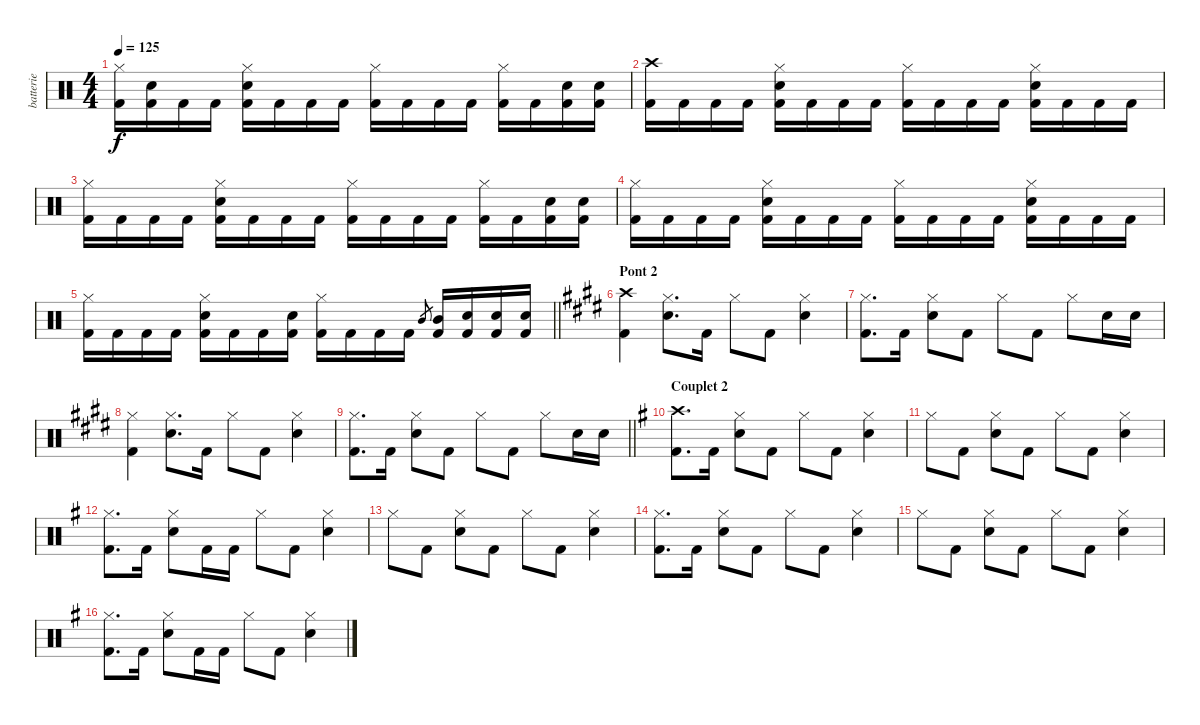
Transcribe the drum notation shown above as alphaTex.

\track ("batterie" "batterie") {instrument percussion}
\staff {score}
\articulation defaults
\ts (4 4)
\tempo 125
\clef neutral
\ks aminor
("Hi-Hat (closed)" "Kick (hit) 2").16{dy f} ("Electric Snare (hit)" "Kick (hit) 2").16 "Kick (hit) 2".16 "Kick (hit) 2".16 ("Hi-Hat (closed)" "Electric Snare (hit)" "Kick (hit) 2").16 "Kick (hit) 2".16 "Kick (hit) 2".16 "Kick (hit) 2".16 ("Hi-Hat (closed)" "Kick (hit) 2").16 "Kick (hit) 2".16 "Kick (hit) 2".16 "Kick (hit) 2".16 ("Hi-Hat (closed)" "Kick (hit) 2").16 "Kick (hit) 2".16 ("Electric Snare (hit)" "Kick (hit) 2").16 ("Electric Snare (hit)" "Kick (hit) 2").16 |
("Crash high (hit)" "Kick (hit) 2").16 "Kick (hit) 2".16 "Kick (hit) 2".16 "Kick (hit) 2".16 ("Hi-Hat (closed)" "Electric Snare (hit)" "Kick (hit) 2").16 "Kick (hit) 2".16 "Kick (hit) 2".16 "Kick (hit) 2".16 ("Hi-Hat (closed)" "Kick (hit) 2").16 "Kick (hit) 2".16 "Kick (hit) 2".16 "Kick (hit) 2".16 ("Hi-Hat (closed)" "Electric Snare (hit)" "Kick (hit) 2").16 "Kick (hit) 2".16 "Kick (hit) 2".16 "Kick (hit) 2".16 |
("Hi-Hat (closed)" "Kick (hit) 2").16 "Kick (hit) 2".16 "Kick (hit) 2".16 "Kick (hit) 2".16 ("Hi-Hat (closed)" "Electric Snare (hit)" "Kick (hit) 2").16 "Kick (hit) 2".16 "Kick (hit) 2".16 "Kick (hit) 2".16 ("Hi-Hat (closed)" "Kick (hit) 2").16 "Kick (hit) 2".16 "Kick (hit) 2".16 "Kick (hit) 2".16 ("Hi-Hat (closed)" "Kick (hit) 2").16 "Kick (hit) 2".16 ("Electric Snare (hit)" "Kick (hit) 2").16 ("Electric Snare (hit)" "Kick (hit) 2").16 |
("Hi-Hat (closed)" "Kick (hit) 2").16 "Kick (hit) 2".16 "Kick (hit) 2".16 "Kick (hit) 2".16 ("Hi-Hat (closed)" "Electric Snare (hit)" "Kick (hit) 2").16 "Kick (hit) 2".16 "Kick (hit) 2".16 "Kick (hit) 2".16 ("Hi-Hat (closed)" "Kick (hit) 2").16 "Kick (hit) 2".16 "Kick (hit) 2".16 "Kick (hit) 2".16 ("Hi-Hat (closed)" "Electric Snare (hit)" "Kick (hit) 2").16 "Kick (hit) 2".16 "Kick (hit) 2".16 "Kick (hit) 2".16 |
\barLineRight lightlight
("Hi-Hat (closed)" "Kick (hit) 2").16 "Kick (hit) 2".16 "Kick (hit) 2".16 "Kick (hit) 2".16 ("Hi-Hat (closed)" "Electric Snare (hit)" "Kick (hit) 2").16 "Kick (hit) 2".16 "Kick (hit) 2".16 ("Electric Snare (hit)" "Kick (hit) 2").16 ("Hi-Hat (closed)" "Kick (hit) 2").16 "Kick (hit) 2".16 "Kick (hit) 2".16 "Kick (hit) 2".16 "Mid Tom (hit)".8{gr} ("Mid Tom (hit)" "Kick (hit) 2").16 ("Electric Snare (hit)" "Kick (hit) 2").16 ("Electric Snare (hit)" "Kick (hit) 2").16 ("Electric Snare (hit)" "Kick (hit) 2").16 |
\section ("" "Pont 2")
\ks c#minor
("Crash high (hit)" "Kick (hit) 2").4 ("Hi-Hat (closed)" "Electric Snare (hit)").8{d} "Kick (hit) 2".16 "Hi-Hat (closed)".8 "Kick (hit) 2".8 ("Hi-Hat (closed)" "Electric Snare (hit)").4 |
("Hi-Hat (closed)" "Kick (hit) 2").8{d} "Kick (hit) 2".16 ("Hi-Hat (closed)" "Electric Snare (hit)").8 "Kick (hit) 2".8 "Hi-Hat (closed)".8 "Kick (hit) 2".8 "Hi-Hat (closed)".8 "Electric Snare (hit)".16 "Electric Snare (hit)".16 |
("Hi-Hat (closed)" "Kick (hit) 2").4 ("Hi-Hat (closed)" "Electric Snare (hit)").8{d} "Kick (hit) 2".16 "Hi-Hat (closed)".8 "Kick (hit) 2".8 ("Hi-Hat (closed)" "Electric Snare (hit)").4 |
\barLineRight lightlight
("Hi-Hat (closed)" "Kick (hit) 2").8{d} "Kick (hit) 2".16 ("Hi-Hat (closed)" "Electric Snare (hit)").8 "Kick (hit) 2".8 "Hi-Hat (closed)".8 "Kick (hit) 2".8 "Hi-Hat (closed)".8 "Electric Snare (hit)".16 "Electric Snare (hit)".16 |
\section ("" "Couplet 2")
\ks eminor
("Crash high (hit)" "Kick (hit) 2").8{d} "Kick (hit) 2".16 ("Hi-Hat (closed)" "Electric Snare (hit)").8 "Kick (hit) 2".8 "Hi-Hat (closed)".8 "Kick (hit) 2".8 ("Hi-Hat (closed)" "Electric Snare (hit)").4 |
"Hi-Hat (closed)".8 "Kick (hit) 2".8 ("Hi-Hat (closed)" "Electric Snare (hit)").8 "Kick (hit) 2".8 "Hi-Hat (closed)".8 "Kick (hit) 2".8 ("Hi-Hat (closed)" "Electric Snare (hit)").4 |
("Hi-Hat (closed)" "Kick (hit) 2").8{d} "Kick (hit) 2".16 ("Hi-Hat (closed)" "Electric Snare (hit)").8 "Kick (hit) 2".16 "Kick (hit) 2".16 "Hi-Hat (closed)".8 "Kick (hit) 2".8 ("Hi-Hat (closed)" "Electric Snare (hit)").4 |
"Hi-Hat (closed)".8 "Kick (hit) 2".8 ("Hi-Hat (closed)" "Electric Snare (hit)").8 "Kick (hit) 2".8 "Hi-Hat (closed)".8 "Kick (hit) 2".8 ("Hi-Hat (closed)" "Electric Snare (hit)").4 |
("Hi-Hat (closed)" "Kick (hit) 2").8{d} "Kick (hit) 2".16 ("Hi-Hat (closed)" "Electric Snare (hit)").8 "Kick (hit) 2".8 "Hi-Hat (closed)".8 "Kick (hit) 2".8 ("Hi-Hat (closed)" "Electric Snare (hit)").4 |
"Hi-Hat (closed)".8 "Kick (hit) 2".8 ("Hi-Hat (closed)" "Electric Snare (hit)").8 "Kick (hit) 2".8 "Hi-Hat (closed)".8 "Kick (hit) 2".8 ("Hi-Hat (closed)" "Electric Snare (hit)").4 |
("Hi-Hat (closed)" "Kick (hit) 2").8{d} "Kick (hit) 2".16 ("Hi-Hat (closed)" "Electric Snare (hit)").8 "Kick (hit) 2".16 "Kick (hit) 2".16 "Hi-Hat (closed)".8 "Kick (hit) 2".8 ("Hi-Hat (closed)" "Electric Snare (hit)").4
